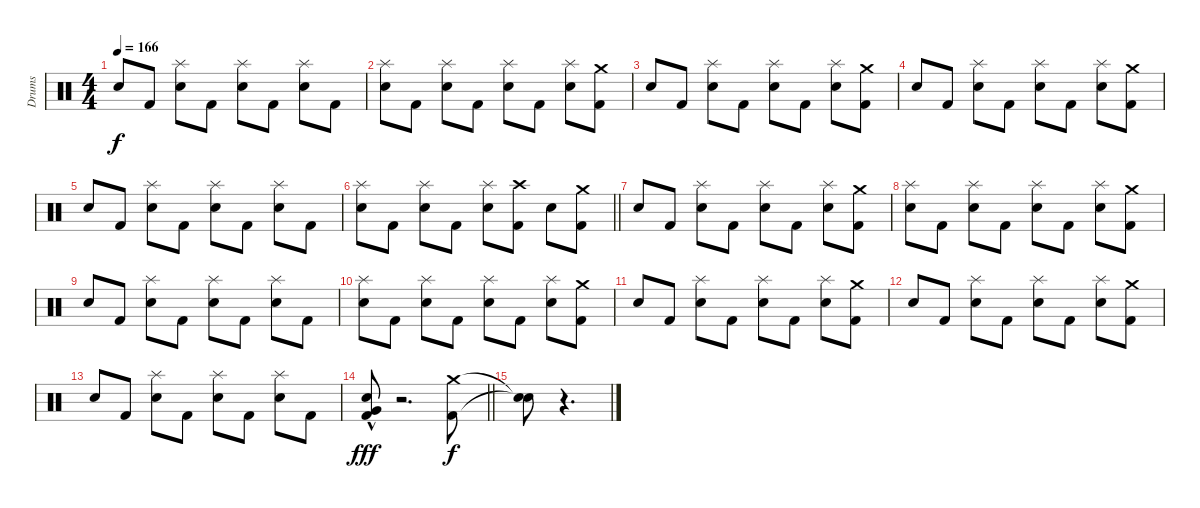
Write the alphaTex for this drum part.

\track ("Drums" "Drums") {instrument percussion}
\staff {score}
\articulation defaults
\ts (4 4)
\tempo 166
\clef neutral
\ks c "Snare (hit) 2".8{dy f} "Kick (hit) 2".8
("Snare (hit) 2" "Splash (hit)").8 "Kick (hit) 2".8 ("Snare (hit) 2" "Splash (hit)").8 "Kick (hit) 2".8 ("Snare (hit) 2" "Splash (hit)").8 "Kick (hit) 2".8 |
("Snare (hit) 2" "Splash (hit)").8 "Kick (hit) 2".8 ("Snare (hit) 2" "Splash (hit)").8 "Kick (hit) 2".8 ("Snare (hit) 2" "Splash (hit)").8 "Kick (hit) 2".8 ("Snare (hit) 2" "Splash (hit)").8 ("Kick (hit) 2" "Crash medium (hit)").8 |
"Snare (hit) 2".8 "Kick (hit) 2".8 ("Snare (hit) 2" "Splash (hit)").8 "Kick (hit) 2".8 ("Snare (hit) 2" "Splash (hit)").8 "Kick (hit) 2".8 ("Snare (hit) 2" "Splash (hit)").8 ("Kick (hit) 2" "Crash medium (hit)").8 |
"Snare (hit) 2".8 "Kick (hit) 2".8 ("Snare (hit) 2" "Splash (hit)").8 "Kick (hit) 2".8 ("Snare (hit) 2" "Splash (hit)").8 "Kick (hit) 2".8 ("Snare (hit) 2" "Splash (hit)").8 ("Kick (hit) 2" "Crash medium (hit)").8 |
"Snare (hit) 2".8 "Kick (hit) 2".8 ("Snare (hit) 2" "Splash (hit)").8 "Kick (hit) 2".8 ("Snare (hit) 2" "Splash (hit)").8 "Kick (hit) 2".8 ("Snare (hit) 2" "Splash (hit)").8 "Kick (hit) 2".8 |
\barLineRight lightlight
("Snare (hit) 2" "Splash (hit)").8 "Kick (hit) 2".8 ("Snare (hit) 2" "Splash (hit)").8 "Kick (hit) 2".8 ("Snare (hit) 2" "Splash (hit)").8 ("Kick (hit) 2" "Crash high (hit)").8 "Snare (hit) 2".8 ("Kick (hit) 2" "Crash medium (hit)").8 |
\section ("" "")
"Snare (hit) 2".8 "Kick (hit) 2".8 ("Snare (hit) 2" "Splash (hit)").8 "Kick (hit) 2".8 ("Snare (hit) 2" "Splash (hit)").8 "Kick (hit) 2".8 ("Snare (hit) 2" "Splash (hit)").8 ("Kick (hit) 2" "Crash medium (hit)").8 |
("Snare (hit) 2" "Splash (hit)").8 "Kick (hit) 2".8 ("Snare (hit) 2" "Splash (hit)").8 "Kick (hit) 2".8 ("Snare (hit) 2" "Splash (hit)").8 "Kick (hit) 2".8 ("Snare (hit) 2" "Splash (hit)").8 ("Kick (hit) 2" "Crash medium (hit)").8 |
"Snare (hit) 2".8 "Kick (hit) 2".8 ("Snare (hit) 2" "Splash (hit)").8 "Kick (hit) 2".8 ("Snare (hit) 2" "Splash (hit)").8 "Kick (hit) 2".8 ("Snare (hit) 2" "Splash (hit)").8 "Kick (hit) 2".8 |
("Snare (hit) 2" "Splash (hit)").8 "Kick (hit) 2".8 ("Snare (hit) 2" "Splash (hit)").8 "Kick (hit) 2".8 ("Snare (hit) 2" "Splash (hit)").8 "Kick (hit) 2".8 ("Snare (hit) 2" "Splash (hit)").8 ("Kick (hit) 2" "Crash medium (hit)").8 |
"Snare (hit) 2".8 "Kick (hit) 2".8 ("Snare (hit) 2" "Splash (hit)").8 "Kick (hit) 2".8 ("Snare (hit) 2" "Splash (hit)").8 "Kick (hit) 2".8 ("Snare (hit) 2" "Splash (hit)").8 ("Kick (hit) 2" "Crash medium (hit)").8 |
"Snare (hit) 2".8 "Kick (hit) 2".8 ("Snare (hit) 2" "Splash (hit)").8 "Kick (hit) 2".8 ("Snare (hit) 2" "Splash (hit)").8 "Kick (hit) 2".8 ("Snare (hit) 2" "Splash (hit)").8 ("Kick (hit) 2" "Crash medium (hit)").8 |
"Snare (hit) 2".8 "Kick (hit) 2".8 ("Snare (hit) 2" "Splash (hit)").8 "Kick (hit) 2".8 ("Snare (hit) 2" "Splash (hit)").8 "Kick (hit) 2".8 ("Snare (hit) 2" "Splash (hit)").8 "Kick (hit) 2".8 |
\barLineRight lightlight
("Kick (hit) 2" "Snare (hit) 2" "Very Low Tom (hit)"{hac}).8{dy fff} r.2{d} ("Kick (hit) 2" "Crash medium (hit)").8{dy f} |
("Snare (hit)"{t} "Snare (hit)"{t}).8 r.4{d}
